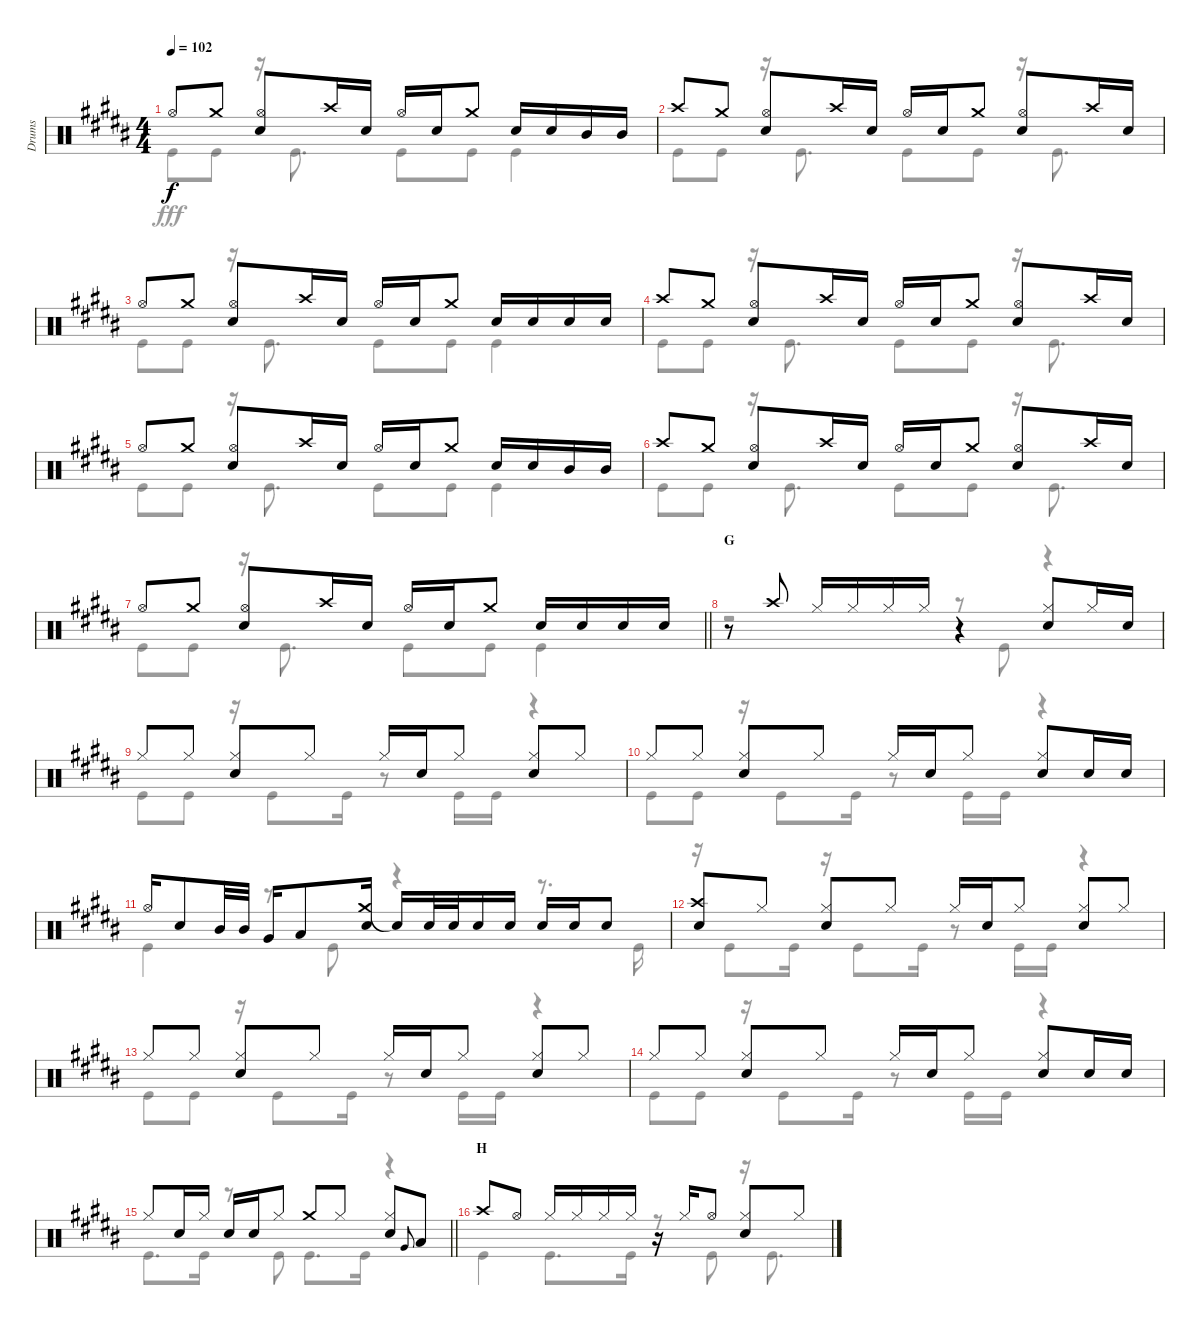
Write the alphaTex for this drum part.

\track ("Drums" "Drums") {instrument percussion}
\staff {score}
\articulation defaults
\voice
\ts (4 4)
\tempo 102
\clef neutral
\ks b "Hi-Hat (open)".8{dy f} "Crash medium (hit)".8
("Hi-Hat (open)" "Snare (hit) 2").8 "Crash high (hit)".16 "Snare (hit) 2".16 "Hi-Hat (open)".16 "Snare (hit) 2".16 "Crash medium (hit)".8 "Snare (hit) 2".16 "Snare (hit) 2".16 "Mid Tom (hit)".16 "Mid Tom (hit)".16 |
"Crash high (hit)".8 "Crash medium (hit)".8 ("Hi-Hat (open)" "Snare (hit) 2").8 "Crash high (hit)".16 "Snare (hit) 2".16 "Hi-Hat (open)".16 "Snare (hit) 2".16 "Crash medium (hit)".8 ("Hi-Hat (open)" "Snare (hit) 2").8 "Crash high (hit)".16 "Snare (hit) 2".16 |
"Hi-Hat (open)".8 "Crash medium (hit)".8 ("Hi-Hat (open)" "Snare (hit) 2").8 "Crash high (hit)".16 "Snare (hit) 2".16 "Hi-Hat (open)".16 "Snare (hit) 2".16 "Crash medium (hit)".8 "Snare (hit) 2".16 "Snare (hit) 2".16 "Snare (hit) 2".16 "Snare (hit) 2".16 |
"Crash high (hit)".8 "Crash medium (hit)".8 ("Hi-Hat (open)" "Snare (hit) 2").8 "Crash high (hit)".16 "Snare (hit) 2".16 "Hi-Hat (open)".16 "Snare (hit) 2".16 "Crash medium (hit)".8 ("Hi-Hat (open)" "Snare (hit) 2").8 "Crash high (hit)".16 "Snare (hit) 2".16 |
"Hi-Hat (open)".8 "Crash medium (hit)".8 ("Hi-Hat (open)" "Snare (hit) 2").8 "Crash high (hit)".16 "Snare (hit) 2".16 "Hi-Hat (open)".16 "Snare (hit) 2".16 "Crash medium (hit)".8 "Snare (hit) 2".16 "Snare (hit) 2".16 "Mid Tom (hit)".16 "Mid Tom (hit)".16 |
"Crash high (hit)".8 "Crash medium (hit)".8 ("Hi-Hat (open)" "Snare (hit) 2").8 "Crash high (hit)".16 "Snare (hit) 2".16 "Hi-Hat (open)".16 "Snare (hit) 2".16 "Crash medium (hit)".8 ("Hi-Hat (open)" "Snare (hit) 2").8 "Crash high (hit)".16 "Snare (hit) 2".16 |
\barLineRight lightlight "Hi-Hat (open)".8 "Crash medium (hit)".8
("Hi-Hat (open)" "Snare (hit) 2").8 "Crash high (hit)".16 "Snare (hit) 2".16 "Hi-Hat (open)".16 "Snare (hit) 2".16 "Crash medium (hit)".8 "Snare (hit) 2".16 "Snare (hit) 2".16 "Snare (hit) 2".16 "Snare (hit) 2".16 |
\section ("" "G")
r.8 "Crash high (hit)".8 "Hi-Hat (closed)".16 "Hi-Hat (closed)".16 "Hi-Hat (closed)".16 "Hi-Hat (closed)".16 r.4 ("Hi-Hat (closed)" "Snare (hit) 2").8 "Hi-Hat (closed)".16 "Snare (hit) 2".16 |
"Hi-Hat (closed)".8 "Hi-Hat (closed)".8 ("Hi-Hat (closed)" "Snare (hit) 2").8 "Hi-Hat (closed)".8 "Hi-Hat (closed)".16 "Snare (hit) 2".16 "Hi-Hat (closed)".8 ("Hi-Hat (closed)" "Snare (hit) 2").8 "Hi-Hat (closed)".8 |
"Hi-Hat (closed)".8 "Hi-Hat (closed)".8 ("Hi-Hat (closed)" "Snare (hit) 2").8 "Hi-Hat (closed)".8 "Hi-Hat (closed)".16 "Snare (hit) 2".16 "Hi-Hat (closed)".8 ("Hi-Hat (closed)" "Snare (hit) 2").8 "Snare (hit) 2".16 "Snare (hit) 2".16 |
"Hi-Hat (open)".16 "Snare (hit) 2".8 "Mid Tom (hit)".32 "Mid Tom (hit)".32 "Very Low Tom (hit)".16 "Low Tom (hit)".8 ("Crash medium (hit)" "Snare (hit) 2").16 "Snare (hit)"{t}.16 "Snare (hit) 2".32 "Snare (hit) 2".32 "Snare (hit) 2".16 "Snare (hit) 2".16 "Snare (hit) 2".16 "Snare (hit) 2".16 "Snare (hit) 2".8 |
("Crash high (hit)" "Snare (hit) 2").8 "Hi-Hat (closed)".8 ("Hi-Hat (closed)" "Snare (hit) 2").8 "Hi-Hat (closed)".8 "Hi-Hat (closed)".16 "Snare (hit) 2".16 "Hi-Hat (closed)".8 ("Hi-Hat (closed)" "Snare (hit) 2").8 "Hi-Hat (closed)".8 |
"Hi-Hat (closed)".8 "Hi-Hat (closed)".8 ("Hi-Hat (closed)" "Snare (hit) 2").8 "Hi-Hat (closed)".8 "Hi-Hat (closed)".16 "Snare (hit) 2".16 "Hi-Hat (closed)".8 ("Hi-Hat (closed)" "Snare (hit) 2").8 "Hi-Hat (closed)".8 |
"Hi-Hat (closed)".8 "Hi-Hat (closed)".8 ("Hi-Hat (closed)" "Snare (hit) 2").8 "Hi-Hat (closed)".8 "Hi-Hat (closed)".16 "Snare (hit) 2".16 "Hi-Hat (closed)".8 ("Hi-Hat (closed)" "Snare (hit) 2").8 "Snare (hit) 2".16 "Snare (hit) 2".16 |
\barLineRight lightlight "Hi-Hat (closed)".8 "Snare (hit) 2".16 "Hi-Hat (closed)".16 "Snare (hit) 2".16 "Snare (hit) 2".16 "Hi-Hat (closed)".8 "Crash medium (hit)".8 "Hi-Hat (closed)".8
("Hi-Hat (closed)" "Snare (hit) 2").8 "Very Low Tom (hit)".8{gr onbeat} "Low Tom (hit)".8 |
\section ("" "H")
"Crash high (hit)".8 "Hi-Hat (open)".8 "Hi-Hat (closed)".16 "Hi-Hat (closed)".16 "Hi-Hat (closed)".16 "Hi-Hat (closed)".16 r.16 "Hi-Hat (closed)".16 "Hi-Hat (open)".8 ("Hi-Hat (closed)" "Snare (hit) 2").8 "Hi-Hat (closed)".8
\voice
\clef neutral
\ottava regular
\simile none
\ks b "Kick (hit)".8{dy fff} "Kick (hit)".8
r.16 "Kick (hit)".8{d} "Kick (hit)".8 "Kick (hit)".8 "Kick (hit)".4 |
"Kick (hit)".8 "Kick (hit)".8 r.16 "Kick (hit)".8{d} "Kick (hit)".8 "Kick (hit)".8 r.16 "Kick (hit)".8{d} |
"Kick (hit)".8 "Kick (hit)".8 r.16 "Kick (hit)".8{d} "Kick (hit)".8 "Kick (hit)".8 "Kick (hit)".4 |
"Kick (hit)".8 "Kick (hit)".8 r.16 "Kick (hit)".8{d} "Kick (hit)".8 "Kick (hit)".8 r.16 "Kick (hit)".8{d} |
"Kick (hit)".8 "Kick (hit)".8 r.16 "Kick (hit)".8{d} "Kick (hit)".8 "Kick (hit)".8 "Kick (hit)".4 |
"Kick (hit)".8 "Kick (hit)".8 r.16 "Kick (hit)".8{d} "Kick (hit)".8 "Kick (hit)".8 r.16 "Kick (hit)".8{d} |
\barLineRight lightlight "Kick (hit)".8 "Kick (hit)".8
r.16 "Kick (hit)".8{d} "Kick (hit)".8 "Kick (hit)".8 "Kick (hit)".4 |
r.2 r.8 "Kick (hit)".8 r.4 |
"Kick (hit)".8 "Kick (hit)".8 r.16 "Kick (hit)".8 "Kick (hit)".16 r.8 "Kick (hit)".16 "Kick (hit)".16 r.4 |
"Kick (hit)".8 "Kick (hit)".8 r.16 "Kick (hit)".8 "Kick (hit)".16 r.8 "Kick (hit)".16 "Kick (hit)".16 r.4 |
"Kick (hit)".4 r.8 "Kick (hit)".8 r.4 r.8{d} "Kick (hit)".16 |
r.16 "Kick (hit)".8 "Kick (hit)".16 r.16 "Kick (hit)".8 "Kick (hit)".16 r.8 "Kick (hit)".16 "Kick (hit)".16 r.4 |
"Kick (hit)".8 "Kick (hit)".8 r.16 "Kick (hit)".8 "Kick (hit)".16 r.8 "Kick (hit)".16 "Kick (hit)".16 r.4 |
"Kick (hit)".8 "Kick (hit)".8 r.16 "Kick (hit)".8 "Kick (hit)".16 r.8 "Kick (hit)".16 "Kick (hit)".16 r.4 |
\barLineRight lightlight "Kick (hit)".8{d} "Kick (hit)".16
r.8 "Kick (hit)".8 "Kick (hit)".8{d} "Kick (hit)".16 r.4 |
"Kick (hit)".4 "Kick (hit)".8{d} "Kick (hit)".16 r.8 "Kick (hit)".8 r.16 "Kick (hit)".8{d}
